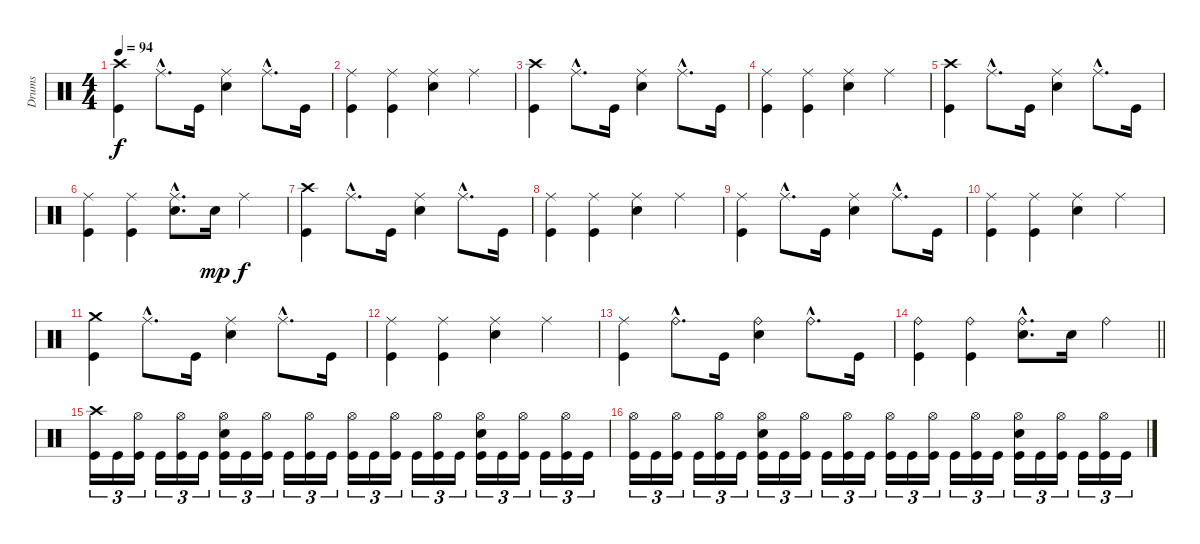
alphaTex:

\track ("Drums" "Drums") {instrument percussion}
\staff {score}
\articulation defaults
\ts (4 4)
\tempo 94
\clef neutral
\ks c
("Crash high (hit)" "Kick (hit)").4{dy f} "Ride (middle)"{hac}.8{d} "Kick (hit)".16 ("Ride (middle)" "Snare (hit) 2").4 "Ride (middle)"{hac}.8{d} "Kick (hit)".16 |
("Ride (middle)" "Kick (hit)").4 ("Ride (middle)" "Kick (hit)").4 ("Ride (middle)" "Snare (hit) 2").4 "Ride (middle)".4 |
("Crash high (hit)" "Kick (hit)").4 "Ride (middle)"{hac}.8{d} "Kick (hit)".16 ("Ride (middle)" "Snare (hit) 2").4 "Ride (middle)"{hac}.8{d} "Kick (hit)".16 |
("Ride (middle)" "Kick (hit)").4 ("Ride (middle)" "Kick (hit)").4 ("Ride (middle)" "Snare (hit) 2").4 "Ride (middle)".4 |
("Crash high (hit)" "Kick (hit)").4 "Ride (middle)"{hac}.8{d} "Kick (hit)".16 ("Ride (middle)" "Snare (hit) 2").4 "Ride (middle)"{hac}.8{d} "Kick (hit)".16 |
("Ride (middle)" "Kick (hit)").4 ("Ride (middle)" "Kick (hit)").4 ("Ride (middle)"{hac} "Snare (hit) 2"{hac}).8{d} "Snare (hit) 2".16{dy mp} "Ride (middle)".4{dy f} |
("Crash high (hit)" "Kick (hit)").4 "Ride (middle)"{hac}.8{d} "Kick (hit)".16 ("Ride (middle)" "Snare (hit) 2").4 "Ride (middle)"{hac}.8{d} "Kick (hit)".16 |
("Ride (middle)" "Kick (hit)").4 ("Ride (middle)" "Kick (hit)").4 ("Ride (middle)" "Snare (hit) 2").4 "Ride (middle)".4 |
("Ride (middle)" "Kick (hit)").4 "Ride (middle)"{hac}.8{d} "Kick (hit)".16 ("Ride (middle)" "Snare (hit) 2").4 "Ride (middle)"{hac}.8{d} "Kick (hit)".16 |
("Ride (middle)" "Kick (hit)").4 ("Ride (middle)" "Kick (hit)").4 ("Ride (middle)" "Snare (hit) 2").4 "Ride (middle)".4 |
("Crash medium (hit)" "Kick (hit)").4 "Ride (middle)"{hac}.8{d} "Kick (hit)".16 ("Ride (middle)" "Snare (hit) 2").4 "Ride (middle)"{hac}.8{d} "Kick (hit)".16 |
("Ride (middle)" "Kick (hit)").4 ("Ride (middle)" "Kick (hit)").4 ("Ride (middle)" "Snare (hit) 2").4 "Ride (middle)".4 |
("Ride (middle)" "Kick (hit)").4 "Ride (bell)"{hac}.8{d} "Kick (hit)".16 ("Ride (bell)" "Snare (hit) 2").4 "Ride (bell)"{hac}.8{d} "Kick (hit)".16 |
\barLineRight lightlight
("Ride (bell)" "Kick (hit)").4 ("Ride (bell)" "Kick (hit)").4 ("Ride (bell)"{hac} "Snare (hit) 2"{hac}).8{d} "Snare (hit) 2".16 "Ride (bell)".4 |
("Crash high (hit)" "Kick (hit)").16{tu (3 2)} "Kick (hit)".16{tu (3 2)} ("Hi-Hat (open)" "Kick (hit)").16{tu (3 2)} "Kick (hit)".16{tu (3 2)} ("Hi-Hat (open)" "Kick (hit)").16{tu (3 2)} "Kick (hit)".16{tu (3 2)} ("Hi-Hat (open)" "Snare (hit) 2" "Kick (hit)").16{tu (3 2)} "Kick (hit)".16{tu (3 2)} ("Hi-Hat (open)" "Kick (hit)").16{tu (3 2)} "Kick (hit)".16{tu (3 2)} ("Hi-Hat (open)" "Kick (hit)").16{tu (3 2)} "Kick (hit)".16{tu (3 2)} ("Hi-Hat (open)" "Kick (hit)").16{tu (3 2)} "Kick (hit)".16{tu (3 2)} ("Hi-Hat (open)" "Kick (hit)").16{tu (3 2)} "Kick (hit)".16{tu (3 2)} ("Hi-Hat (open)" "Kick (hit)").16{tu (3 2)} "Kick (hit)".16{tu (3 2)} ("Hi-Hat (open)" "Snare (hit) 2" "Kick (hit)").16{tu (3 2)} "Kick (hit)".16{tu (3 2)} ("Hi-Hat (open)" "Kick (hit)").16{tu (3 2)} "Kick (hit)".16{tu (3 2)} ("Hi-Hat (open)" "Kick (hit)").16{tu (3 2)} "Kick (hit)".16{tu (3 2)} |
("Hi-Hat (open)" "Kick (hit)").16{tu (3 2)} "Kick (hit)".16{tu (3 2)} ("Hi-Hat (open)" "Kick (hit)").16{tu (3 2)} "Kick (hit)".16{tu (3 2)} ("Hi-Hat (open)" "Kick (hit)").16{tu (3 2)} "Kick (hit)".16{tu (3 2)} ("Hi-Hat (open)" "Snare (hit) 2" "Kick (hit)").16{tu (3 2)} "Kick (hit)".16{tu (3 2)} ("Hi-Hat (open)" "Kick (hit)").16{tu (3 2)} "Kick (hit)".16{tu (3 2)} ("Hi-Hat (open)" "Kick (hit)").16{tu (3 2)} "Kick (hit)".16{tu (3 2)} ("Hi-Hat (open)" "Kick (hit)").16{tu (3 2)} "Kick (hit)".16{tu (3 2)} ("Hi-Hat (open)" "Kick (hit)").16{tu (3 2)} "Kick (hit)".16{tu (3 2)} ("Hi-Hat (open)" "Kick (hit)").16{tu (3 2)} "Kick (hit)".16{tu (3 2)} ("Hi-Hat (open)" "Snare (hit) 2" "Kick (hit)").16{tu (3 2)} "Kick (hit)".16{tu (3 2)} ("Hi-Hat (open)" "Kick (hit)").16{tu (3 2)} "Kick (hit)".16{tu (3 2)} ("Hi-Hat (open)" "Kick (hit)").16{tu (3 2)} "Kick (hit)".16{tu (3 2)}
